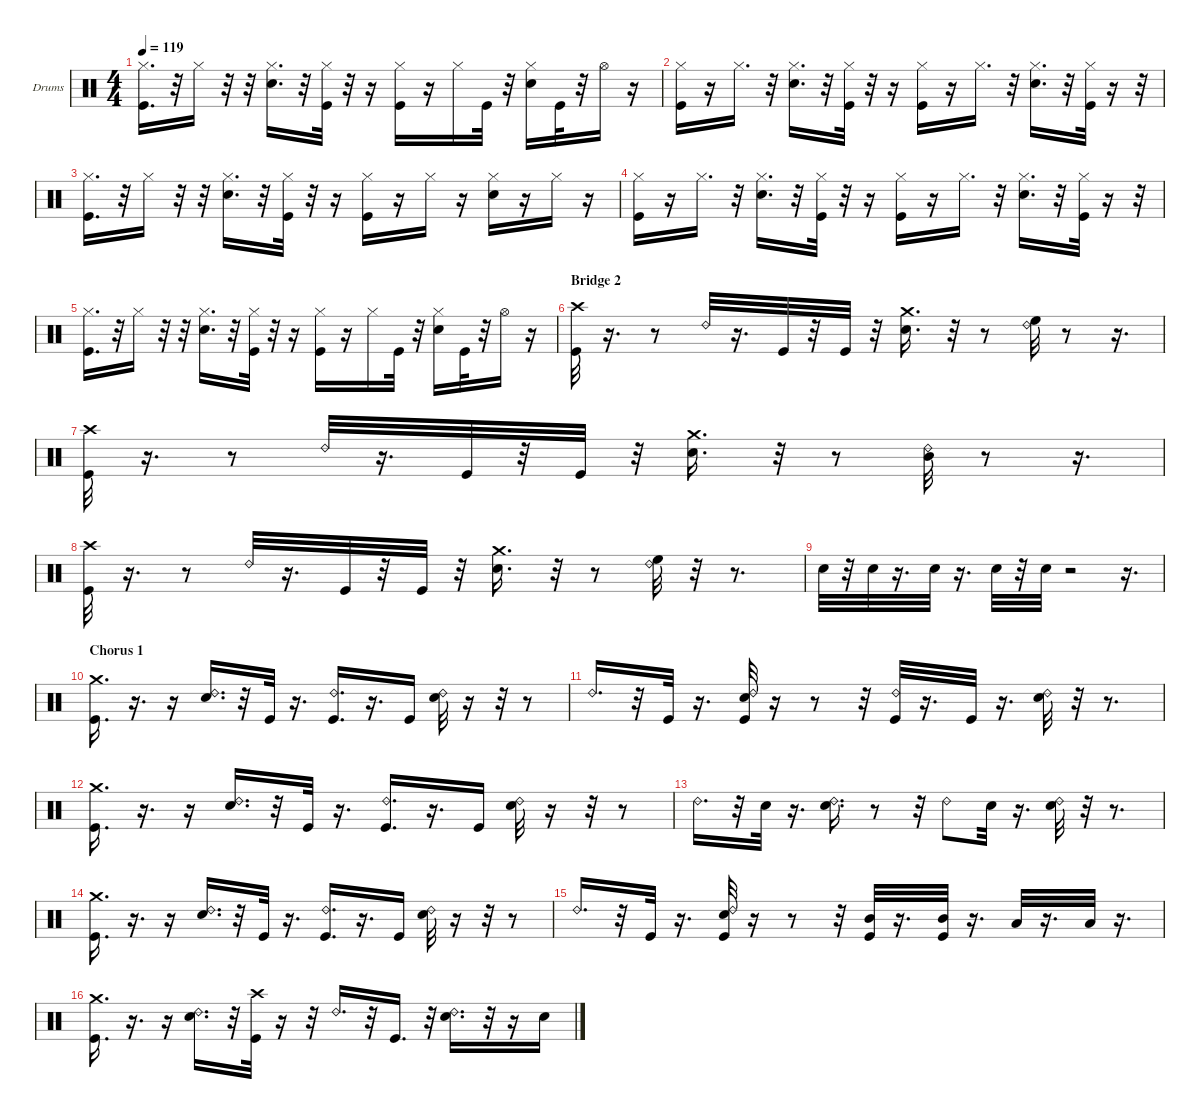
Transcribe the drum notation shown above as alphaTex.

\hideDynamics
\bracketExtendMode groupsimilarinstruments
\firstSystemTrackNameOrientation horizontal
\otherSystemsTrackNameOrientation horizontal
\track ("Drums" "Drums") {instrument percussion}
\staff {score}
\articulation defaults
\ts (4 4)
\tempo 119
\clef neutral
\ks c
("Kick (hit)" "Hi-Hat (closed)").16{d dy mf} r.32 "Hi-Hat (closed)".16 r.32 r.32 ("Snare (hit) 2" "Hi-Hat (closed)").16{d} r.32 ("Kick (hit)" "Hi-Hat (closed)").32 r.32 r.16 ("Kick (hit)" "Hi-Hat (closed)").16 r.16 "Hi-Hat (closed)".16 "Kick (hit)".32 r.32 ("Snare (hit) 2" "Hi-Hat (closed)").16 "Kick (hit)".32 r.32 "Hi-Hat (open)".16 r.16 |
("Kick (hit)" "Hi-Hat (closed)").16 r.16 "Hi-Hat (closed)".16{d} r.32 ("Snare (hit) 2" "Hi-Hat (closed)").16{d} r.32 ("Kick (hit)" "Hi-Hat (closed)").32 r.32 r.16 ("Kick (hit)" "Hi-Hat (closed)").16 r.16 "Hi-Hat (closed)".16{d} r.32 ("Snare (hit) 2" "Hi-Hat (closed)").16{d} r.32 ("Kick (hit)" "Hi-Hat (closed)").32 r.16 r.32 |
("Kick (hit)" "Hi-Hat (closed)").16{d} r.32 "Hi-Hat (closed)".16 r.32 r.32 ("Snare (hit) 2" "Hi-Hat (closed)").16{d} r.32 ("Kick (hit)" "Hi-Hat (closed)").32 r.32 r.16 ("Kick (hit)" "Hi-Hat (closed)").16 r.16 "Hi-Hat (closed)".16 r.16 ("Snare (hit) 2" "Hi-Hat (closed)").16 r.16 "Hi-Hat (closed)".16 r.16 |
("Kick (hit)" "Hi-Hat (closed)").16 r.16 "Hi-Hat (closed)".16{d} r.32 ("Snare (hit) 2" "Hi-Hat (closed)").16{d} r.32 ("Kick (hit)" "Hi-Hat (closed)").32 r.32 r.16 ("Kick (hit)" "Hi-Hat (closed)").16 r.16 "Hi-Hat (closed)".16{d} r.32 ("Snare (hit) 2" "Hi-Hat (closed)").16{d} r.32 ("Kick (hit)" "Hi-Hat (closed)").32 r.16 r.32 |
("Kick (hit)" "Hi-Hat (closed)").16{d} r.32 "Hi-Hat (closed)".16 r.32 r.32 ("Snare (hit) 2" "Hi-Hat (closed)").16{d} r.32 ("Kick (hit)" "Hi-Hat (closed)").32 r.32 r.16 ("Kick (hit)" "Hi-Hat (closed)").16 r.16 "Hi-Hat (closed)".16 "Kick (hit)".32 r.32 ("Snare (hit) 2" "Hi-Hat (closed)").16 "Kick (hit)".32 r.32 "Hi-Hat (open)".16 r.16 |
\section ("" "Bridge 2")
("Kick (hit)" "Crash high (hit)").32 r.16{d} r.8 "Ride (bell) 2".32 r.16{d} "Kick (hit)".32 r.32 "Kick (hit)".32 r.32 ("Crash medium (hit)" "Snare (hit) 2").16{d} r.32 r.8 ("High Floor Tom (hit)" "Ride (bell) 2").32 r.8 r.16{d} |
("Kick (hit)" "Crash high (hit)").32 r.16{d} r.8 "Ride (bell) 2".32 r.16{d} "Kick (hit)".32 r.32 "Kick (hit)".32 r.32 ("Crash medium (hit)" "Snare (hit) 2").16{d} r.32 r.8 ("Mid Tom (hit)" "Ride (bell) 2").32 r.8 r.16{d} |
("Kick (hit)" "Crash high (hit)").32 r.16{d} r.8 "Ride (bell) 2".32 r.16{d} "Kick (hit)".32 r.32 "Kick (hit)".32 r.32 ("Crash medium (hit)" "Snare (hit) 2").16{d} r.32 r.8 ("High Floor Tom (hit)" "Ride (bell) 2").32 r.32 r.8{d} |
"Snare (hit) 2".32 r.32 "Snare (hit) 2".32 r.16{d} "Snare (hit) 2".32 r.16{d} "Snare (hit) 2".32 r.32 "Snare (hit) 2".32 r.2 r.16{d} |
\section ("" "Chorus 1")
("Crash medium (hit)" "Kick (hit)").16{d} r.16{d} r.16 ("Snare (hit) 2" "Ride (bell) 2").16{d} r.32 "Kick (hit)".32 r.16{d} ("Ride (bell) 2" "Kick (hit)").16{d} r.16{d} "Kick (hit)".16 ("Snare (hit) 2" "Ride (bell) 2").32 r.16 r.32 r.8 |
"Ride (bell) 2".16{d} r.32 "Kick (hit)".32 r.16{d} ("Ride (bell) 2" "Kick (hit)" "Snare (hit) 2").32 r.16 r.8 r.32 ("Ride (bell) 2" "Kick (hit)").32 r.16{d} "Kick (hit)".32 r.16{d} ("Ride (bell) 2" "Snare (hit) 2").32 r.32 r.8{d} |
("Crash medium (hit)" "Kick (hit)").16{d} r.16{d} r.16 ("Snare (hit) 2" "Ride (bell) 2").16{d} r.32 "Kick (hit)".32 r.16{d} ("Ride (bell) 2" "Kick (hit)").16{d} r.16{d} "Kick (hit)".16 ("Snare (hit) 2" "Ride (bell) 2").32 r.16 r.32 r.8 |
"Ride (bell) 2".16{d} r.32 "Snare (hit) 2".32 r.16{d} ("Ride (bell) 2" "Snare (hit) 2").16{d} r.8 r.32 "Ride (bell) 2".8 "Snare (hit) 2".32 r.16{d} ("Ride (bell) 2" "Snare (hit) 2").32 r.32 r.8{d} |
("Crash medium (hit)" "Kick (hit)").16{d} r.16{d} r.16 ("Snare (hit) 2" "Ride (bell) 2").16{d} r.32 "Kick (hit)".32 r.16{d} ("Ride (bell) 2" "Kick (hit)").16{d} r.16{d} "Kick (hit)".16 ("Snare (hit) 2" "Ride (bell) 2").32 r.16 r.32 r.8 |
"Ride (bell) 2".16{d} r.32 "Kick (hit)".32 r.16{d} ("Ride (bell) 2" "Kick (hit)" "Snare (hit) 2").32 r.16 r.8 r.32 ("Kick (hit)" "Mid Tom (hit)").32 r.16{d} ("Kick (hit)" "Mid Tom (hit)").32 r.16{d} "Low Tom (hit)".32 r.16{d} "Low Tom (hit)".32 r.16{d} |
("Kick (hit)" "Crash medium (hit)").16{d} r.16{d} r.16 ("Snare (hit) 2" "Ride (bell) 2").16{d} r.32 ("Crash high (hit)" "Kick (hit)").32 r.16 r.32 "Ride (bell) 2".16{d} r.32 "Kick (hit)".16{d} r.32 ("Snare (hit) 2" "Ride (bell) 2").16{d} r.32 r.16 "Snare (hit) 2".16
